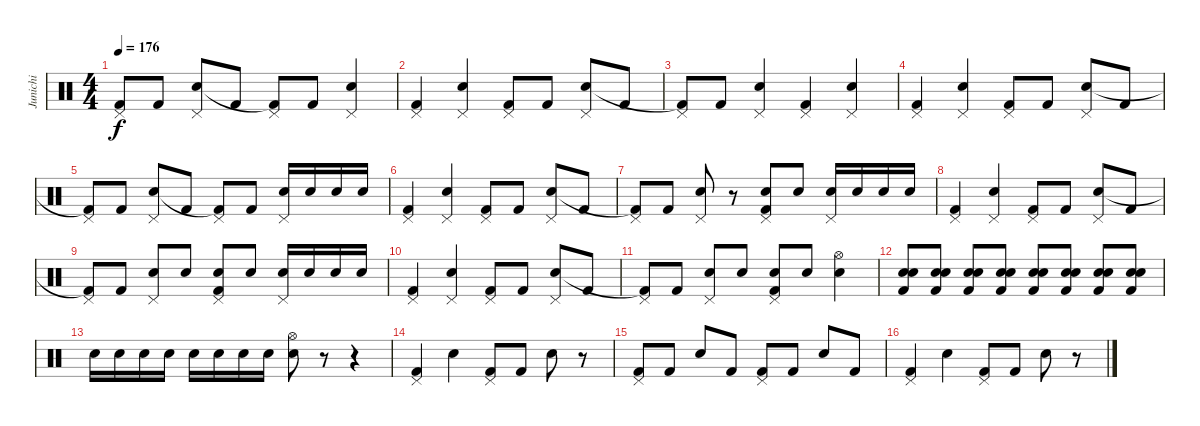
\track ("Junichi" "Junichi") {instrument percussion}
\staff {score}
\articulation defaults
\ts (4 4)
\tempo 176
\clef neutral
\ks c
("Pedal Hi-Hat (hit)" "Kick (hit) 2"{t}).8{dy f} "Kick (hit) 2".8 ("Pedal Hi-Hat (hit)" "Snare (hit) 2").8 "Kick (hit) 2".8 ("Pedal Hi-Hat (hit)" "Kick (hit) 2"{t}).8 "Kick (hit) 2".8 ("Pedal Hi-Hat (hit)" "Snare (hit) 2").4 |
("Pedal Hi-Hat (hit)" "Kick (hit) 2").4 ("Pedal Hi-Hat (hit)" "Snare (hit) 2").4 ("Pedal Hi-Hat (hit)" "Kick (hit) 2").8 "Kick (hit) 2".8 ("Pedal Hi-Hat (hit)" "Snare (hit) 2").8 "Kick (hit) 2".8 |
("Pedal Hi-Hat (hit)" "Kick (hit) 2"{t}).8 "Kick (hit) 2".8 ("Pedal Hi-Hat (hit)" "Snare (hit) 2").4 ("Pedal Hi-Hat (hit)" "Kick (hit) 2").4 ("Pedal Hi-Hat (hit)" "Snare (hit) 2").4 |
("Pedal Hi-Hat (hit)" "Kick (hit) 2").4 ("Pedal Hi-Hat (hit)" "Snare (hit) 2").4 ("Pedal Hi-Hat (hit)" "Kick (hit) 2").8 "Kick (hit) 2".8 ("Pedal Hi-Hat (hit)" "Snare (hit) 2").8 "Kick (hit) 2".8 |
("Pedal Hi-Hat (hit)" "Kick (hit) 2"{t}).8 "Kick (hit) 2".8 ("Pedal Hi-Hat (hit)" "Snare (hit) 2").8 "Kick (hit) 2".8 ("Pedal Hi-Hat (hit)" "Kick (hit) 2"{t}).8 "Kick (hit) 2".8 ("Pedal Hi-Hat (hit)" "Snare (hit) 2").16 "Snare (hit) 2".16 "Snare (hit) 2".16 "Snare (hit) 2".16 |
("Pedal Hi-Hat (hit)" "Kick (hit) 2").4 ("Pedal Hi-Hat (hit)" "Snare (hit) 2").4 ("Pedal Hi-Hat (hit)" "Kick (hit) 2").8 "Kick (hit) 2".8 ("Pedal Hi-Hat (hit)" "Snare (hit) 2").8 "Kick (hit) 2".8 |
("Pedal Hi-Hat (hit)" "Kick (hit) 2"{t}).8 "Kick (hit) 2".8 ("Pedal Hi-Hat (hit)" "Snare (hit) 2").8 r.8 ("Pedal Hi-Hat (hit)" "Snare (hit) 2" "Kick (hit) 2").8 "Snare (hit) 2".8 ("Pedal Hi-Hat (hit)" "Snare (hit) 2").16 "Snare (hit) 2".16 "Snare (hit) 2".16 "Snare (hit) 2".16 |
("Pedal Hi-Hat (hit)" "Kick (hit) 2").4 ("Pedal Hi-Hat (hit)" "Snare (hit) 2").4 ("Pedal Hi-Hat (hit)" "Kick (hit) 2").8 "Kick (hit) 2".8 ("Pedal Hi-Hat (hit)" "Snare (hit) 2").8 "Kick (hit) 2".8 |
("Pedal Hi-Hat (hit)" "Kick (hit) 2"{t}).8 "Kick (hit) 2".8 ("Pedal Hi-Hat (hit)" "Snare (hit) 2").8 "Snare (hit) 2".8 ("Pedal Hi-Hat (hit)" "Snare (hit) 2" "Kick (hit) 2").8 "Snare (hit) 2".8 ("Pedal Hi-Hat (hit)" "Snare (hit) 2").16 "Snare (hit) 2".16 "Snare (hit) 2".16 "Snare (hit) 2".16 |
("Pedal Hi-Hat (hit)" "Kick (hit) 2").4 ("Pedal Hi-Hat (hit)" "Snare (hit) 2").4 ("Pedal Hi-Hat (hit)" "Kick (hit) 2").8 "Kick (hit) 2".8 ("Pedal Hi-Hat (hit)" "Snare (hit) 2").8 "Kick (hit) 2".8 |
("Pedal Hi-Hat (hit)" "Kick (hit) 2"{t}).8 "Kick (hit) 2".8 ("Pedal Hi-Hat (hit)" "Snare (hit) 2").8 "Snare (hit) 2".8 ("Pedal Hi-Hat (hit)" "Snare (hit) 2" "Kick (hit) 2").8 "Snare (hit) 2".8 ("Hi-Hat (open)" "Snare (hit) 2").4 |
("Snare (hit) 2" "Snare (hit) 2" "Kick (hit) 2").8 ("Snare (hit) 2" "Snare (hit) 2" "Kick (hit) 2").8 ("Snare (hit) 2" "Snare (hit) 2" "Kick (hit) 2").8 ("Snare (hit) 2" "Snare (hit) 2" "Kick (hit) 2").8 ("Snare (hit) 2" "Snare (hit) 2" "Kick (hit) 2").8 ("Snare (hit) 2" "Snare (hit) 2" "Kick (hit) 2").8 ("Snare (hit) 2" "Snare (hit) 2" "Kick (hit) 2").8 ("Snare (hit) 2" "Snare (hit) 2" "Kick (hit) 2").8 |
"Snare (hit) 2".16 "Snare (hit) 2".16 "Snare (hit) 2".16 "Snare (hit) 2".16 "Snare (hit) 2".16 "Snare (hit) 2".16 "Snare (hit) 2".16 "Snare (hit) 2".16 ("Hi-Hat (open)" "Snare (hit) 2").8 r.8 r.4 |
("Pedal Hi-Hat (hit)" "Kick (hit) 2").4 "Snare (hit) 2".4 ("Pedal Hi-Hat (hit)" "Kick (hit) 2").8 "Kick (hit) 2".8 "Snare (hit) 2".8 r.8 |
("Pedal Hi-Hat (hit)" "Kick (hit) 2").8 "Kick (hit) 2".8 "Snare (hit) 2".8 "Kick (hit) 2".8 ("Pedal Hi-Hat (hit)" "Kick (hit) 2").8 "Kick (hit) 2".8 "Snare (hit) 2".8 "Kick (hit) 2".8 |
("Pedal Hi-Hat (hit)" "Kick (hit) 2").4 "Snare (hit) 2".4 ("Pedal Hi-Hat (hit)" "Kick (hit) 2").8 "Kick (hit) 2".8 "Snare (hit) 2".8 r.8
